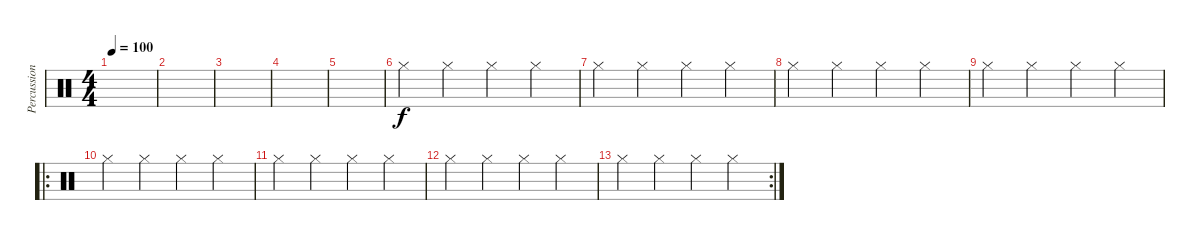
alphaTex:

\track ("Percussion" "Percussion") {instrument percussion}
\staff {score}
\articulation defaults
\ts (4 4)
\tempo 100
\clef neutral
\ks c
|
|
|
|
|
"Hi-Hat (closed)".4 "Hi-Hat (closed)".4 "Hi-Hat (closed)".4 "Hi-Hat (closed)".4 |
"Hi-Hat (closed)".4 "Hi-Hat (closed)".4 "Hi-Hat (closed)".4 "Hi-Hat (closed)".4 |
"Hi-Hat (closed)".4 "Hi-Hat (closed)".4 "Hi-Hat (closed)".4 "Hi-Hat (closed)".4 |
"Hi-Hat (closed)".4 "Hi-Hat (closed)".4 "Hi-Hat (closed)".4 "Hi-Hat (closed)".4 |
\ro "Hi-Hat (closed)".4 "Hi-Hat (closed)".4 "Hi-Hat (closed)".4 "Hi-Hat (closed)".4
|
"Hi-Hat (closed)".4 "Hi-Hat (closed)".4 "Hi-Hat (closed)".4 "Hi-Hat (closed)".4 |
"Hi-Hat (closed)".4 "Hi-Hat (closed)".4 "Hi-Hat (closed)".4 "Hi-Hat (closed)".4 |
\rc 2 "Hi-Hat (closed)".4 "Hi-Hat (closed)".4 "Hi-Hat (closed)".4 "Hi-Hat (closed)".4
